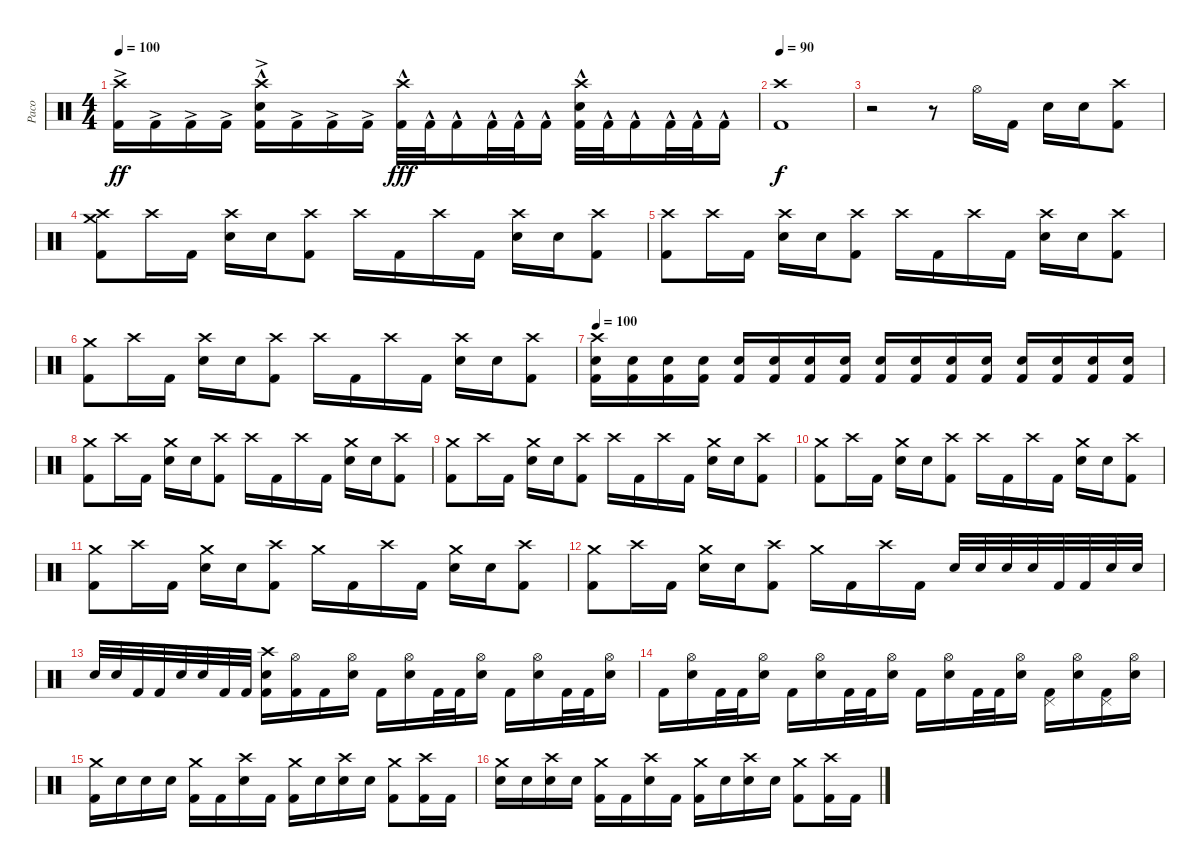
\track ("Paco" "Paco") {instrument percussion}
\staff {score}
\articulation defaults
\ts (4 4)
\tempo 100
\clef neutral
\ks c
("Crash high (hit)" "Kick (hit) 2"{ac}).16{dy ff} "Kick (hit) 2"{ac}.16 "Kick (hit) 2"{ac}.16 "Kick (hit) 2"{ac}.16 ("Crash high (hit)" "Electric Snare (hit)"{hac} "Kick (hit) 2"{ac}).16 "Kick (hit) 2"{ac}.16 "Kick (hit) 2"{ac}.16 "Kick (hit) 2"{ac}.16 ("Crash high (hit)" "Kick (hit) 2"{hac}).32{dy fff} "Kick (hit) 2"{hac}.32 "Kick (hit) 2"{hac}.16 "Kick (hit) 2"{hac}.32 "Kick (hit) 2"{hac}.32 "Kick (hit) 2"{hac}.16 ("Crash high (hit)" "Electric Snare (hit)"{hac} "Kick (hit) 2"{hac}).32 "Kick (hit) 2"{hac}.32 "Kick (hit) 2"{hac}.16 "Kick (hit) 2"{hac}.32 "Kick (hit) 2"{hac}.32 "Kick (hit) 2"{hac}.16 |
\tempo 90
("Crash high (hit)" "Kick (hit) 2").1{dy f} |
r.2 r.8 "Hi-Hat (open)".16 "Kick (hit) 2".16 "Electric Snare (hit)".16 "Electric Snare (hit)".16 ("Crash high (hit)" "Kick (hit) 2").8 |
("Crash medium (hit)" "Crash high (hit)" "Kick (hit) 2").8 "Crash high (hit)".16 "Kick (hit) 2".16 ("Crash high (hit)" "Electric Snare (hit)").16 "Electric Snare (hit)".16 ("Crash high (hit)" "Kick (hit) 2").8 "Crash high (hit)".16 "Kick (hit) 2".16 "Crash high (hit)".16 "Kick (hit) 2".16 ("Crash high (hit)" "Electric Snare (hit)").16 "Electric Snare (hit)".16 ("Crash high (hit)" "Kick (hit) 2").8 |
("Crash high (hit)" "Kick (hit) 2").8 "Crash high (hit)".16 "Kick (hit) 2".16 ("Crash high (hit)" "Electric Snare (hit)").16 "Electric Snare (hit)".16 ("Crash high (hit)" "Kick (hit) 2").8 "Crash high (hit)".16 "Kick (hit) 2".16 "Crash high (hit)".16 "Kick (hit) 2".16 ("Crash high (hit)" "Electric Snare (hit)").16 "Electric Snare (hit)".16 ("Crash high (hit)" "Kick (hit) 2").8 |
("Crash medium (hit)" "Kick (hit) 2").8 "Crash high (hit)".16 "Kick (hit) 2".16 ("Crash high (hit)" "Electric Snare (hit)").16 "Electric Snare (hit)".16 ("Crash high (hit)" "Kick (hit) 2").8 "Crash high (hit)".16 "Kick (hit) 2".16 "Crash high (hit)".16 "Kick (hit) 2".16 ("Crash high (hit)" "Electric Snare (hit)").16 "Electric Snare (hit)".16 ("Crash high (hit)" "Kick (hit) 2").8 |
\tempo 100
("Crash high (hit)" "Electric Snare (hit)" "Kick (hit) 2").16 ("Electric Snare (hit)" "Kick (hit) 2").16 ("Electric Snare (hit)" "Kick (hit) 2").16 ("Electric Snare (hit)" "Kick (hit) 2").16 ("Electric Snare (hit)" "Kick (hit) 2").16 ("Electric Snare (hit)" "Kick (hit) 2").16 ("Electric Snare (hit)" "Kick (hit) 2").16 ("Electric Snare (hit)" "Kick (hit) 2").16 ("Electric Snare (hit)" "Kick (hit) 2").16 ("Electric Snare (hit)" "Kick (hit) 2").16 ("Electric Snare (hit)" "Kick (hit) 2").16 ("Electric Snare (hit)" "Kick (hit) 2").16 ("Electric Snare (hit)" "Kick (hit) 2").16 ("Electric Snare (hit)" "Kick (hit) 2").16 ("Electric Snare (hit)" "Kick (hit) 2").16 ("Electric Snare (hit)" "Kick (hit) 2").16 |
("Crash medium (hit)" "Kick (hit) 2").8 "Crash high (hit)".16 "Kick (hit) 2".16 ("Crash medium (hit)" "Electric Snare (hit)").16 "Electric Snare (hit)".16 ("Crash high (hit)" "Kick (hit) 2").8 "Crash high (hit)".16 "Kick (hit) 2".16 "Crash high (hit)".16 "Kick (hit) 2".16 ("Crash medium (hit)" "Electric Snare (hit)").16 "Electric Snare (hit)".16 ("Crash high (hit)" "Kick (hit) 2").8 |
("Crash medium (hit)" "Kick (hit) 2").8 "Crash high (hit)".16 "Kick (hit) 2".16 ("Crash medium (hit)" "Electric Snare (hit)").16 "Electric Snare (hit)".16 ("Crash high (hit)" "Kick (hit) 2").8 "Crash high (hit)".16 "Kick (hit) 2".16 "Crash high (hit)".16 "Kick (hit) 2".16 ("Crash medium (hit)" "Electric Snare (hit)").16 "Electric Snare (hit)".16 ("Crash high (hit)" "Kick (hit) 2").8 |
("Crash medium (hit)" "Kick (hit) 2").8 "Crash high (hit)".16 "Kick (hit) 2".16 ("Crash medium (hit)" "Electric Snare (hit)").16 "Electric Snare (hit)".16 ("Crash high (hit)" "Kick (hit) 2").8 "Crash high (hit)".16 "Kick (hit) 2".16 "Crash high (hit)".16 "Kick (hit) 2".16 ("Crash medium (hit)" "Electric Snare (hit)").16 "Electric Snare (hit)".16 ("Crash high (hit)" "Kick (hit) 2").8 |
("Crash medium (hit)" "Kick (hit) 2").8 "Crash high (hit)".16 "Kick (hit) 2".16 ("Crash medium (hit)" "Electric Snare (hit)").16 "Electric Snare (hit)".16 ("Crash high (hit)" "Kick (hit) 2").8 "Crash medium (hit)".16 "Kick (hit) 2".16 "Crash high (hit)".16 "Kick (hit) 2".16 ("Crash medium (hit)" "Electric Snare (hit)").16 "Electric Snare (hit)".16 ("Crash high (hit)" "Kick (hit) 2").8 |
("Crash medium (hit)" "Kick (hit) 2").8 "Crash high (hit)".16 "Kick (hit) 2".16 ("Crash medium (hit)" "Electric Snare (hit)").16 "Electric Snare (hit)".16 ("Crash high (hit)" "Kick (hit) 2").8 "Crash medium (hit)".16 "Kick (hit) 2".16 "Crash high (hit)".16 "Kick (hit) 2".16 "Electric Snare (hit)".32 "Electric Snare (hit)".32 "Electric Snare (hit)".32 "Electric Snare (hit)".32 "Kick (hit) 2".32 "Kick (hit) 2".32 "Electric Snare (hit)".32 "Electric Snare (hit)".32 |
"Electric Snare (hit)".32 "Electric Snare (hit)".32 "Kick (hit) 2".32 "Kick (hit) 2".32 "Electric Snare (hit)".32 "Electric Snare (hit)".32 "Kick (hit) 2".32 "Kick (hit) 2".32 ("Crash high (hit)" "Electric Snare (hit)" "Kick (hit) 2").16 ("Hi-Hat (open)" "Kick (hit) 2").16 "Kick (hit) 2".16 ("Hi-Hat (open)" "Electric Snare (hit)").16 "Kick (hit) 2".16 ("Hi-Hat (open)" "Electric Snare (hit)").16 "Kick (hit) 2".32 "Kick (hit) 2".32 ("Hi-Hat (open)" "Electric Snare (hit)").16 "Kick (hit) 2".16 ("Hi-Hat (open)" "Electric Snare (hit)").16 "Kick (hit) 2".32 "Kick (hit) 2".32 ("Hi-Hat (open)" "Electric Snare (hit)").16 |
"Kick (hit) 2".16 ("Hi-Hat (open)" "Electric Snare (hit)").16 "Kick (hit) 2".32 "Kick (hit) 2".32 ("Hi-Hat (open)" "Electric Snare (hit)").16 "Kick (hit) 2".16 ("Hi-Hat (open)" "Electric Snare (hit)").16 "Kick (hit) 2".32 "Kick (hit) 2".32 ("Hi-Hat (open)" "Electric Snare (hit)").16 "Kick (hit) 2".16 ("Hi-Hat (open)" "Electric Snare (hit)").16 "Kick (hit) 2".32 "Kick (hit) 2".32 ("Hi-Hat (open)" "Electric Snare (hit)").16 ("Pedal Hi-Hat (hit)" "Kick (hit) 2").16 ("Hi-Hat (open)" "Electric Snare (hit)").16 ("Pedal Hi-Hat (hit)" "Kick (hit) 2").16 ("Hi-Hat (open)" "Electric Snare (hit)").16 |
("Crash medium (hit)" "Kick (hit) 2").16 "Electric Snare (hit)".16 "Electric Snare (hit)".16 "Electric Snare (hit)".16 ("Crash medium (hit)" "Kick (hit) 2").16 "Kick (hit) 2".16 ("Crash high (hit)" "Electric Snare (hit)").16 "Kick (hit) 2".16 ("Crash medium (hit)" "Kick (hit) 2").16 "Electric Snare (hit)".16 ("Crash high (hit)" "Electric Snare (hit)").16 "Electric Snare (hit)".16 ("Crash medium (hit)" "Kick (hit) 2").8 ("Crash high (hit)" "Kick (hit) 2").16 "Kick (hit) 2".16 |
("Crash medium (hit)" "Electric Snare (hit)").16 "Electric Snare (hit)".16 ("Crash high (hit)" "Electric Snare (hit)").16 "Electric Snare (hit)".16 ("Crash medium (hit)" "Kick (hit) 2").16 "Kick (hit) 2".16 ("Crash high (hit)" "Electric Snare (hit)").16 "Kick (hit) 2".16 ("Crash medium (hit)" "Kick (hit) 2").16 "Electric Snare (hit)".16 ("Crash high (hit)" "Electric Snare (hit)").16 "Electric Snare (hit)".16 ("Crash medium (hit)" "Kick (hit) 2").8 ("Crash high (hit)" "Kick (hit) 2").16 "Kick (hit) 2".16
